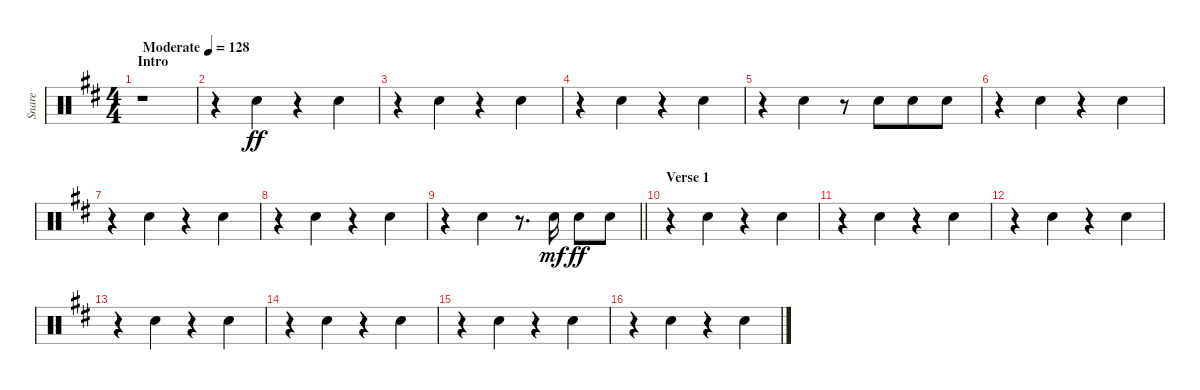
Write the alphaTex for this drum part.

\track ("Snare" "Snare") {instrument percussion}
\staff {score}
\articulation defaults
\ts (4 4)
\section ("" "Intro")
\tempo (128 "Moderate")
\clef neutral
\ks bminor
r.1{dy ff} |
r.4{beam merge} "Electric Snare (hit)".4 r.4{beam merge} "Electric Snare (hit)".4 |
r.4{beam merge} "Electric Snare (hit)".4 r.4{beam merge} "Electric Snare (hit)".4 |
r.4{beam merge} "Electric Snare (hit)".4 r.4{beam merge} "Electric Snare (hit)".4 |
r.4{beam merge} "Electric Snare (hit)".4 r.8 "Electric Snare (hit)".8{beam merge} "Electric Snare (hit)".8 "Electric Snare (hit)".8 |
r.4{beam merge} "Electric Snare (hit)".4 r.4{beam merge} "Electric Snare (hit)".4 |
r.4{beam merge} "Electric Snare (hit)".4 r.4{beam merge} "Electric Snare (hit)".4 |
r.4{beam merge} "Electric Snare (hit)".4 r.4{beam merge} "Electric Snare (hit)".4 |
\barLineRight lightlight
r.4{beam merge} "Electric Snare (hit)".4 r.8{d} "Electric Snare (hit)".16{dy mf beam split} "Electric Snare (hit)".8{dy ff} "Electric Snare (hit)".8 |
\section ("" "Verse 1")
r.4{beam merge} "Electric Snare (hit)".4 r.4{beam merge} "Electric Snare (hit)".4 |
r.4{beam merge} "Electric Snare (hit)".4 r.4{beam merge} "Electric Snare (hit)".4 |
r.4{beam merge} "Electric Snare (hit)".4 r.4{beam merge} "Electric Snare (hit)".4 |
r.4{beam merge} "Electric Snare (hit)".4 r.4{beam merge} "Electric Snare (hit)".4 |
r.4{beam merge} "Electric Snare (hit)".4 r.4{beam merge} "Electric Snare (hit)".4 |
r.4{beam merge} "Electric Snare (hit)".4 r.4{beam merge} "Electric Snare (hit)".4 |
r.4{beam merge} "Electric Snare (hit)".4 r.4{beam merge} "Electric Snare (hit)".4
